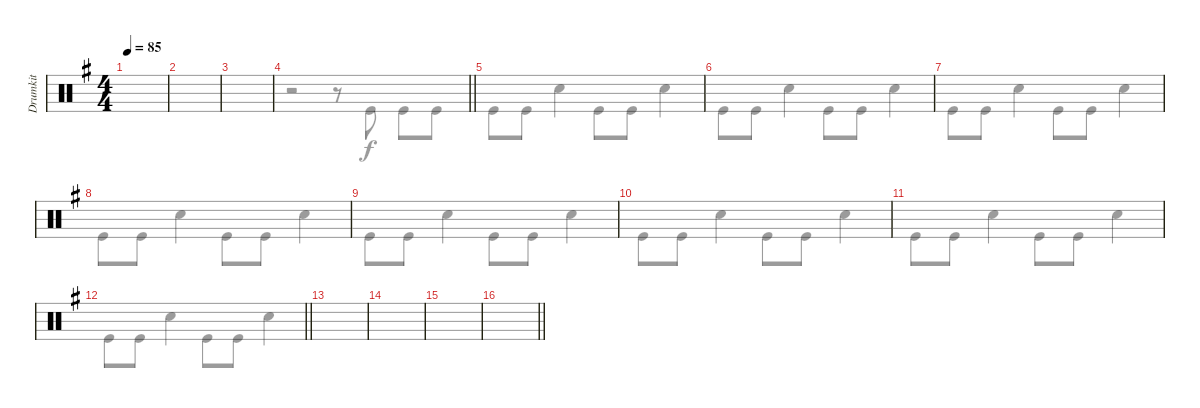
\track ("Drumkit" "Drumkit") {instrument percussion}
\staff {score}
\articulation defaults
\voice
\ts (4 4)
\tempo 85
\clef neutral
\ks eminor
|
|
|
\barLineRight lightlight
|
|
|
|
|
|
|
|
\barLineRight lightlight
|
|
|
|
\barLineRight lightlight
\voice
\clef neutral
\ks eminor
|
|
|
\barLineRight lightlight
r.2 r.8 "Kick (hit)".8 "Kick (hit)".8 "Kick (hit)".8 |
"Kick (hit)".8 "Kick (hit)".8 "Snare (hit) 2".4 "Kick (hit)".8 "Kick (hit)".8 "Snare (hit) 2".4 |
"Kick (hit)".8 "Kick (hit)".8 "Snare (hit) 2".4 "Kick (hit)".8 "Kick (hit)".8 "Snare (hit) 2".4 |
"Kick (hit)".8 "Kick (hit)".8 "Snare (hit) 2".4 "Kick (hit)".8 "Kick (hit)".8 "Snare (hit) 2".4 |
"Kick (hit)".8 "Kick (hit)".8 "Snare (hit) 2".4 "Kick (hit)".8 "Kick (hit)".8 "Snare (hit) 2".4 |
"Kick (hit)".8 "Kick (hit)".8 "Snare (hit) 2".4 "Kick (hit)".8 "Kick (hit)".8 "Snare (hit) 2".4 |
"Kick (hit)".8 "Kick (hit)".8 "Snare (hit) 2".4 "Kick (hit)".8 "Kick (hit)".8 "Snare (hit) 2".4 |
"Kick (hit)".8 "Kick (hit)".8 "Snare (hit) 2".4 "Kick (hit)".8 "Kick (hit)".8 "Snare (hit) 2".4 |
\barLineRight lightlight "Kick (hit)".8 "Kick (hit)".8 "Snare (hit) 2".4 "Kick (hit)".8 "Kick (hit)".8 "Snare (hit) 2".4
|
|
|
|
\barLineRight lightlight
